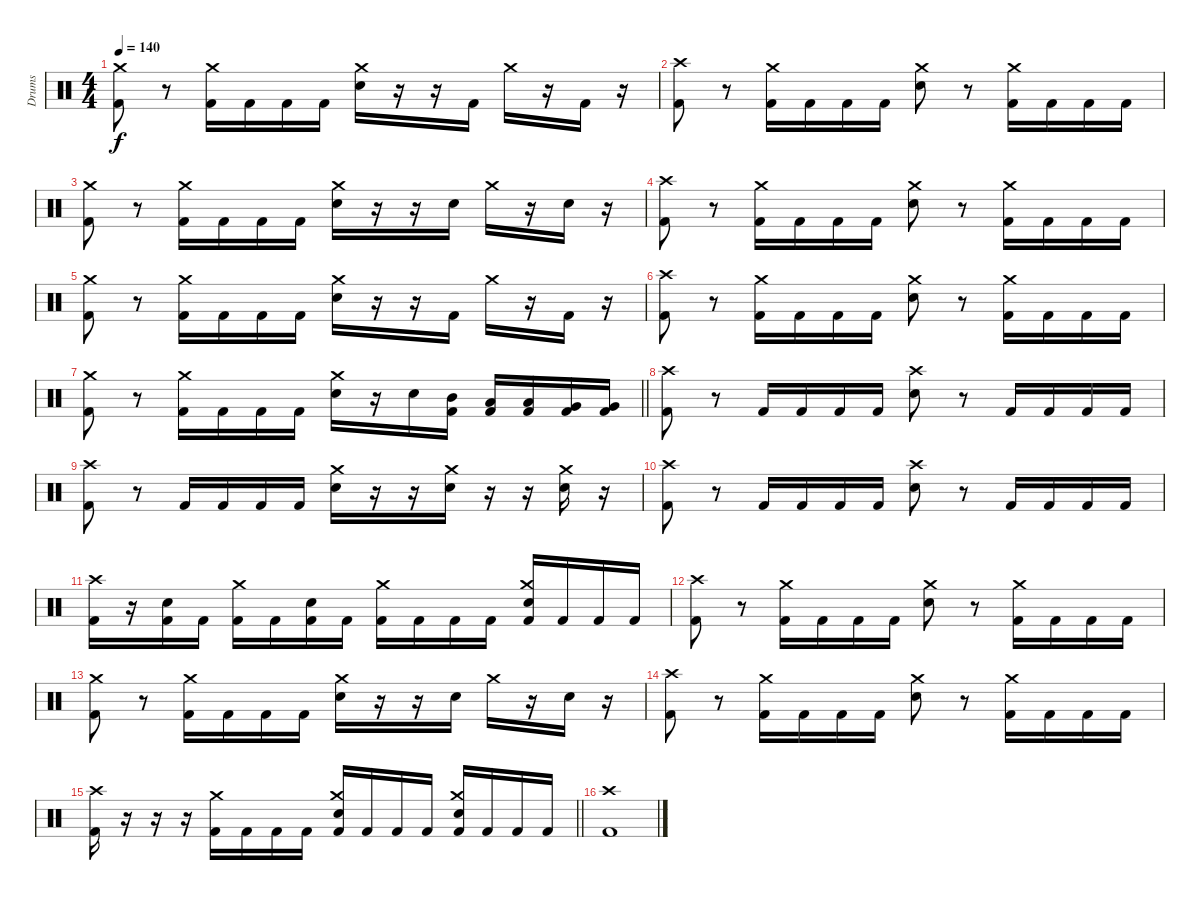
\track ("Drums" "Drums") {instrument percussion}
\staff {score}
\articulation defaults
\ts (4 4)
\tempo 140
\clef neutral
\ks c
("Kick (hit) 2" "Crash medium (hit)").8{dy f} r.8 ("Kick (hit) 2" "Crash medium (hit)").16 "Kick (hit) 2".16 "Kick (hit) 2".16 "Kick (hit) 2".16 ("Snare (hit) 2" "Crash medium (hit)").16 r.16 r.16 "Kick (hit) 2".16 "Crash medium (hit)".16 r.16 "Kick (hit) 2".16 r.16 |
("Kick (hit) 2" "Crash high (hit)").8 r.8 ("Kick (hit) 2" "Crash medium (hit)").16 "Kick (hit) 2".16 "Kick (hit) 2".16 "Kick (hit) 2".16 ("Snare (hit) 2" "Crash medium (hit)").8 r.8 ("Kick (hit) 2" "Crash medium (hit)").16 "Kick (hit) 2".16 "Kick (hit) 2".16 "Kick (hit) 2".16 |
("Kick (hit) 2" "Crash medium (hit)").8 r.8 ("Kick (hit) 2" "Crash medium (hit)").16 "Kick (hit) 2".16 "Kick (hit) 2".16 "Kick (hit) 2".16 ("Snare (hit) 2" "Crash medium (hit)").16 r.16 r.16 "Snare (hit) 2".16 "Crash medium (hit)".16 r.16 "Snare (hit) 2".16 r.16 |
("Kick (hit) 2" "Crash high (hit)").8 r.8 ("Kick (hit) 2" "Crash medium (hit)").16 "Kick (hit) 2".16 "Kick (hit) 2".16 "Kick (hit) 2".16 ("Snare (hit) 2" "Crash medium (hit)").8 r.8 ("Kick (hit) 2" "Crash medium (hit)").16 "Kick (hit) 2".16 "Kick (hit) 2".16 "Kick (hit) 2".16 |
("Kick (hit) 2" "Crash medium (hit)").8 r.8 ("Kick (hit) 2" "Crash medium (hit)").16 "Kick (hit) 2".16 "Kick (hit) 2".16 "Kick (hit) 2".16 ("Snare (hit) 2" "Crash medium (hit)").16 r.16 r.16 "Kick (hit) 2".16 "Crash medium (hit)".16 r.16 "Kick (hit) 2".16 r.16 |
("Kick (hit) 2" "Crash high (hit)").8 r.8 ("Kick (hit) 2" "Crash medium (hit)").16 "Kick (hit) 2".16 "Kick (hit) 2".16 "Kick (hit) 2".16 ("Snare (hit) 2" "Crash medium (hit)").8 r.8 ("Kick (hit) 2" "Crash medium (hit)").16 "Kick (hit) 2".16 "Kick (hit) 2".16 "Kick (hit) 2".16 |
\barLineRight lightlight
("Kick (hit) 2" "Crash medium (hit)").8 r.8 ("Kick (hit) 2" "Crash medium (hit)").16 "Kick (hit) 2".16 "Kick (hit) 2".16 "Kick (hit) 2".16 ("Snare (hit) 2" "Crash medium (hit)").16 r.16 "Snare (hit) 2".16 ("Kick (hit) 2" "Mid Tom (hit)").16 ("Kick (hit) 2" "Low Tom (hit)").16 ("Kick (hit) 2" "Low Tom (hit)").16 ("Kick (hit) 2" "Very Low Tom (hit)").16 ("Kick (hit) 2" "Very Low Tom (hit)").16 |
\section ("" " ")
("Kick (hit) 2" "Crash high (hit)").8 r.8 "Kick (hit) 2".16 "Kick (hit) 2".16 "Kick (hit) 2".16 "Kick (hit) 2".16 ("Snare (hit) 2" "Crash high (hit)").8 r.8 "Kick (hit) 2".16 "Kick (hit) 2".16 "Kick (hit) 2".16 "Kick (hit) 2".16 |
("Kick (hit) 2" "Crash high (hit)").8 r.8 "Kick (hit) 2".16 "Kick (hit) 2".16 "Kick (hit) 2".16 "Kick (hit) 2".16 ("Snare (hit) 2" "Crash medium (hit)").16 r.16 r.16 ("Snare (hit) 2" "Crash medium (hit)").16 r.16 r.16 ("Snare (hit) 2" "Crash medium (hit)").16 r.16 |
("Kick (hit) 2" "Crash high (hit)").8 r.8 "Kick (hit) 2".16 "Kick (hit) 2".16 "Kick (hit) 2".16 "Kick (hit) 2".16 ("Snare (hit) 2" "Crash high (hit)").8 r.8 "Kick (hit) 2".16 "Kick (hit) 2".16 "Kick (hit) 2".16 "Kick (hit) 2".16 |
("Kick (hit) 2" "Crash high (hit)").16 r.16 ("Kick (hit) 2" "Snare (hit) 2").16 "Kick (hit) 2".16 ("Kick (hit) 2" "Crash medium (hit)").16 "Kick (hit) 2".16 ("Kick (hit) 2" "Snare (hit) 2").16 "Kick (hit) 2".16 ("Kick (hit) 2" "Crash medium (hit)").16 "Kick (hit) 2".16 "Kick (hit) 2".16 "Kick (hit) 2".16 ("Kick (hit) 2" "Snare (hit) 2" "Crash medium (hit)").16 "Kick (hit) 2".16 "Kick (hit) 2".16 "Kick (hit) 2".16 |
("Kick (hit) 2" "Crash high (hit)").8 r.8 ("Kick (hit) 2" "Crash medium (hit)").16 "Kick (hit) 2".16 "Kick (hit) 2".16 "Kick (hit) 2".16 ("Snare (hit) 2" "Crash medium (hit)").8 r.8 ("Kick (hit) 2" "Crash medium (hit)").16 "Kick (hit) 2".16 "Kick (hit) 2".16 "Kick (hit) 2".16 |
("Kick (hit) 2" "Crash medium (hit)").8 r.8 ("Kick (hit) 2" "Crash medium (hit)").16 "Kick (hit) 2".16 "Kick (hit) 2".16 "Kick (hit) 2".16 ("Snare (hit) 2" "Crash medium (hit)").16 r.16 r.16 "Snare (hit) 2".16 "Crash medium (hit)".16 r.16 "Snare (hit) 2".16 r.16 |
("Kick (hit) 2" "Crash high (hit)").8 r.8 ("Kick (hit) 2" "Crash medium (hit)").16 "Kick (hit) 2".16 "Kick (hit) 2".16 "Kick (hit) 2".16 ("Snare (hit) 2" "Crash medium (hit)").8 r.8 ("Kick (hit) 2" "Crash medium (hit)").16 "Kick (hit) 2".16 "Kick (hit) 2".16 "Kick (hit) 2".16 |
\barLineRight lightlight
("Kick (hit) 2" "Crash high (hit)").16 r.16 r.16 r.16 ("Kick (hit) 2" "Crash medium (hit)").16 "Kick (hit) 2".16 "Kick (hit) 2".16 "Kick (hit) 2".16 ("Kick (hit) 2" "Snare (hit) 2" "Crash medium (hit)").16 "Kick (hit) 2".16 "Kick (hit) 2".16 "Kick (hit) 2".16 ("Kick (hit) 2" "Snare (hit) 2" "Crash medium (hit)").16 "Kick (hit) 2".16 "Kick (hit) 2".16 "Kick (hit) 2".16 |
\section ("" " ")
("Kick (hit) 2" "Crash high (hit)").1
